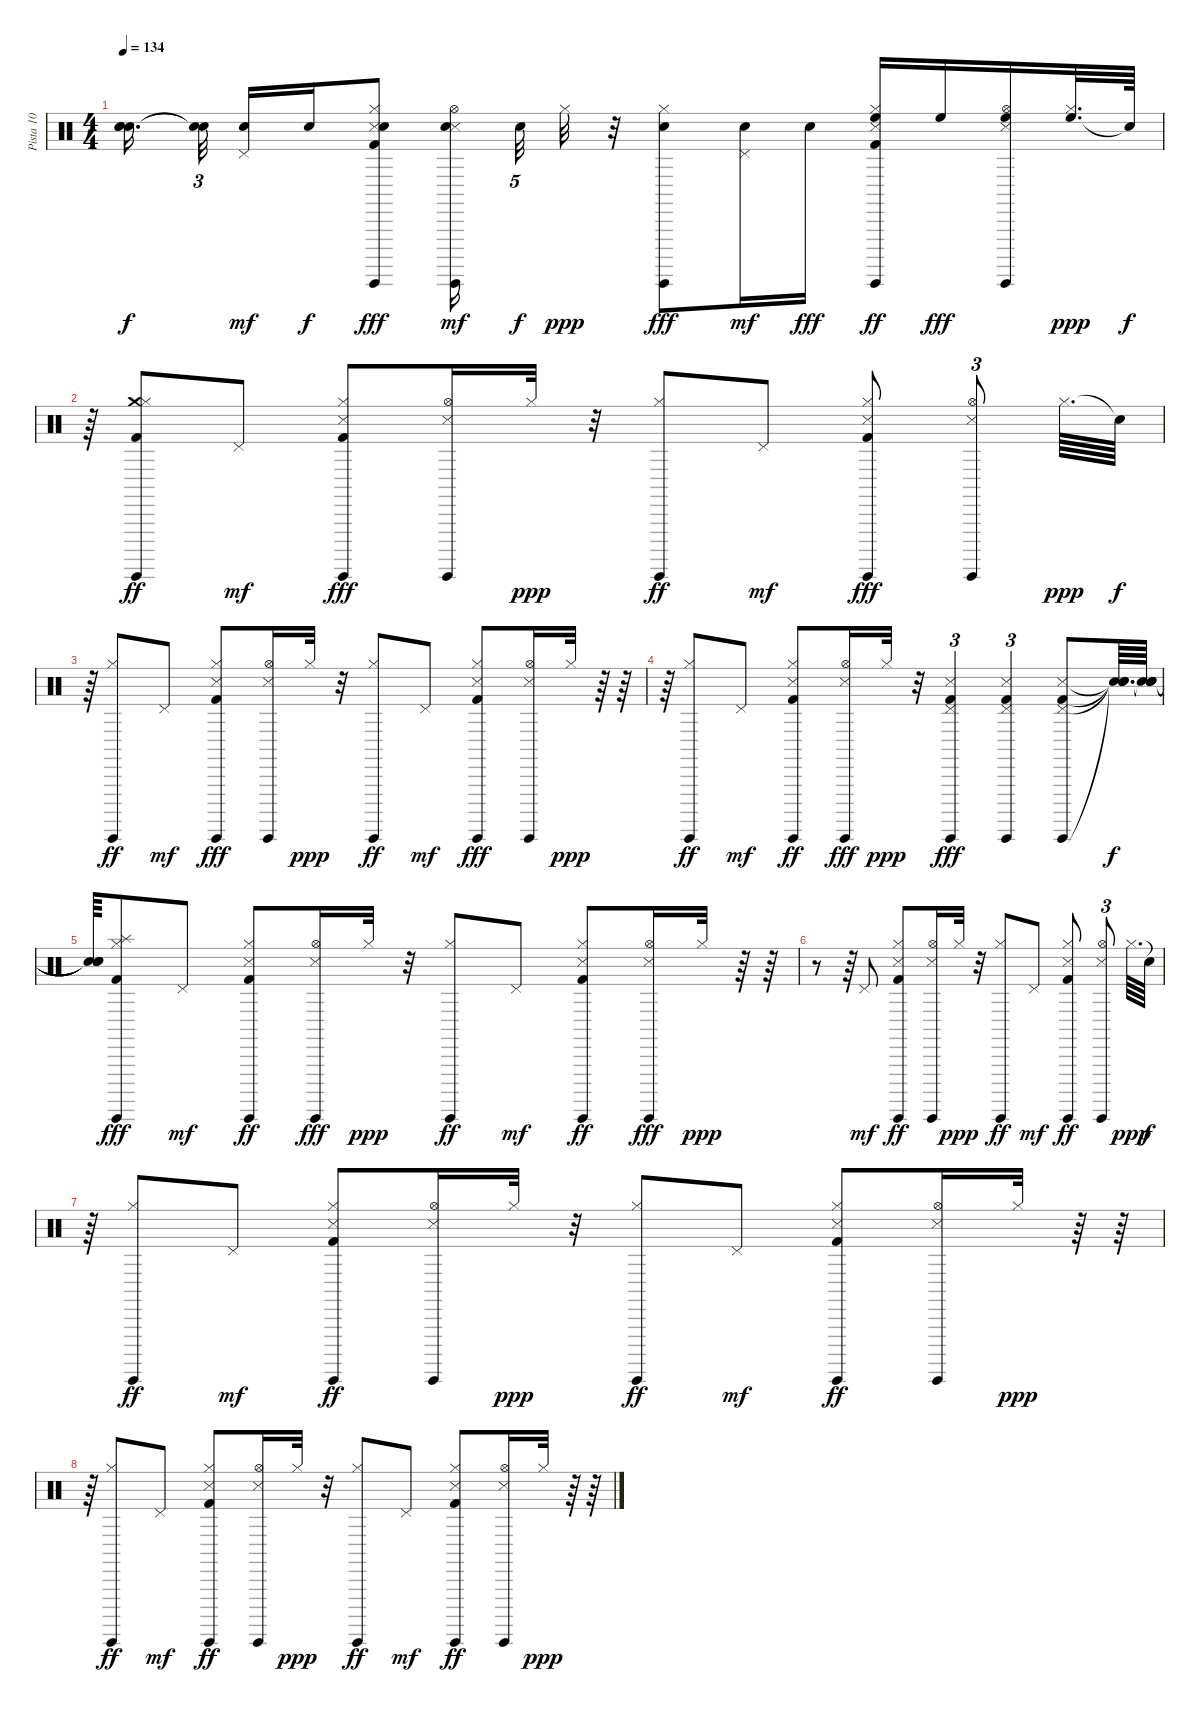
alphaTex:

\track ("Pista 10" "Pista 10") {instrument percussion}
\staff {score}
\articulation defaults
\ts (4 4)
\tempo 134
\clef neutral
\ks c
("Snare (hit)"{t} "Snare (hit)"{t} "Snare (hit)"{t}).16{d dy f beam splitsecondary} ("Snare (hit)"{t} "Snare (hit)"{t}).32{tu (3 2) beam splitsecondary} ("Pedal Hi-Hat (hit)" "Electric Snare (hit)").16{dy mf} "Electric Snare (hit)".16{dy f} ("Guiro (hit)" "Hi-Hat (closed)" "Kick (hit) 2" "Snare (side stick) 3" "Electric Snare (hit)").8{dy fff} ("Guiro (hit)" "Hi-Hat (open)" "Snare (side stick) 3" "Electric Snare (hit)").16{dy mf beam splitsecondary} "Electric Snare (hit)".32{tu (5 4) dy f} "Hi-Hat (closed)".32{dy ppp} r.32 ("Guiro (hit)" "Hi-Hat (closed)" "Electric Snare (hit)").8{dy fff} ("Pedal Hi-Hat (hit)" "Electric Snare (hit)").16{dy mf} "Electric Snare (hit)".16{dy fff} ("Guiro (hit)" "Hi-Hat (closed)" "Kick (hit) 2" "Snare (side stick) 3" "High Floor Tom (hit)").16{dy ff} "High Floor Tom (hit)".16{dy fff} ("Guiro (hit)" "Hi-Hat (open)" "Snare (side stick) 3" "High Floor Tom (hit)").16 ("High Floor Tom (hit)" "Hi-Hat (closed)").32{d dy ppp} "Snare (hit)"{t}.64{dy f} |
r.64 ("Kick (hit) 2" "Crash medium (hit)" "Guiro (hit)" "Hi-Hat (closed)").8{dy ff} "Pedal Hi-Hat (hit)".8{dy mf} ("Guiro (hit)" "Hi-Hat (closed)" "Kick (hit) 2" "Snare (side stick) 3").8{dy fff} ("Guiro (hit)" "Hi-Hat (open)" "Snare (side stick) 3").16 "Hi-Hat (closed)".32{dy ppp} r.32 ("Guiro (hit)" "Hi-Hat (closed)").8{dy ff} "Pedal Hi-Hat (hit)".8{dy mf} ("Guiro (hit)" "Hi-Hat (closed)" "Kick (hit) 2" "Snare (side stick) 3").8{dy fff} ("Guiro (hit)" "Hi-Hat (open)" "Snare (side stick) 3").8{tu (3 2)} "Hi-Hat (closed)".64{d dy ppp} "Snare (hit)"{t}.64{dy f} |
r.64 ("Guiro (hit)" "Hi-Hat (closed)").8{dy ff} "Pedal Hi-Hat (hit)".8{dy mf} ("Guiro (hit)" "Hi-Hat (closed)" "Kick (hit) 2" "Snare (side stick) 3").8{dy fff} ("Guiro (hit)" "Hi-Hat (open)" "Snare (side stick) 3").16 "Hi-Hat (closed)".32{dy ppp} r.32 ("Guiro (hit)" "Hi-Hat (closed)").8{dy ff} "Pedal Hi-Hat (hit)".8{dy mf} ("Guiro (hit)" "Hi-Hat (closed)" "Kick (hit) 2" "Snare (side stick) 3").8{dy fff} ("Guiro (hit)" "Hi-Hat (open)" "Snare (side stick) 3").16 "Hi-Hat (closed)".32{dy ppp} r.64 r.64 |
r.64 ("Hi-Hat (closed)" "Guiro (hit)").8{dy ff} "Pedal Hi-Hat (hit)".8{dy mf} ("Hi-Hat (closed)" "Guiro (hit)" "Snare (side stick) 3" "Kick (hit) 2").8{dy ff} ("Hi-Hat (open)" "Guiro (hit)" "Snare (side stick) 3").16{dy fff} "Hi-Hat (closed)".32{dy ppp} r.32 ("Snare (side stick) 3" "Kick (hit) 2" "Pedal Hi-Hat (hit)" "Guiro (hit)").4{tu (3 2) dy fff} ("Snare (side stick) 3" "Kick (hit) 2" "Pedal Hi-Hat (hit)" "Guiro (hit)").4{tu (3 2)} ("Snare (side stick) 3" "Kick (hit) 2" "Pedal Hi-Hat (hit)" "Guiro (hit)").8 ("Snare (hit)"{t} "Snare (hit)"{t} "Snare (hit)"{t} "Snare (hit)"{t}).64{d dy f} ("Snare (hit)"{t} "Snare (hit)"{t} "Snare (hit)"{t} "Snare (hit)"{t}).64 |
("Snare (hit)"{t} "Snare (hit)"{t} "Snare (hit)"{t} "Snare (hit)"{t}).64 ("Hi-Hat (closed)" "Guiro (hit)" "Splash (hit)" "Kick (hit) 2").8{dy fff} "Pedal Hi-Hat (hit)".8{dy mf} ("Hi-Hat (closed)" "Guiro (hit)" "Snare (side stick) 3" "Kick (hit) 2").8{dy ff} ("Hi-Hat (open)" "Guiro (hit)" "Snare (side stick) 3").16{dy fff} "Hi-Hat (closed)".32{dy ppp} r.32 ("Hi-Hat (closed)" "Guiro (hit)").8{dy ff} "Pedal Hi-Hat (hit)".8{dy mf} ("Hi-Hat (closed)" "Guiro (hit)" "Snare (side stick) 3" "Kick (hit) 2").8{dy ff} ("Hi-Hat (open)" "Guiro (hit)" "Snare (side stick) 3").16{dy fff} "Hi-Hat (closed)".32{dy ppp} r.64 r.64 |
r.8 r.64 "Pedal Hi-Hat (hit)".8{dy mf} ("Hi-Hat (closed)" "Kick (hit) 2" "Snare (side stick) 3" "Guiro (hit)").8{dy ff} ("Hi-Hat (open)" "Snare (side stick) 3" "Guiro (hit)").16 "Hi-Hat (closed)".32{dy ppp} r.32 ("Hi-Hat (closed)" "Guiro (hit)").8{dy ff} "Pedal Hi-Hat (hit)".8{dy mf} ("Hi-Hat (closed)" "Kick (hit) 2" "Snare (side stick) 3" "Guiro (hit)").8{dy ff} ("Hi-Hat (open)" "Snare (side stick) 3" "Guiro (hit)").8{tu (3 2)} "Hi-Hat (closed)".64{d dy ppp} "Snare (hit)"{t}.64{dy f} |
r.64 ("Hi-Hat (closed)" "Guiro (hit)").8{dy ff} "Pedal Hi-Hat (hit)".8{dy mf} ("Hi-Hat (closed)" "Kick (hit) 2" "Snare (side stick) 3" "Guiro (hit)").8{dy ff} ("Hi-Hat (open)" "Snare (side stick) 3" "Guiro (hit)").16 "Hi-Hat (closed)".32{dy ppp} r.32 ("Hi-Hat (closed)" "Guiro (hit)").8{dy ff} "Pedal Hi-Hat (hit)".8{dy mf} ("Hi-Hat (closed)" "Kick (hit) 2" "Snare (side stick) 3" "Guiro (hit)").8{dy ff} ("Hi-Hat (open)" "Snare (side stick) 3" "Guiro (hit)").16 "Hi-Hat (closed)".32{dy ppp} r.64 r.64 |
r.64 ("Hi-Hat (closed)" "Guiro (hit)").8{dy ff} "Pedal Hi-Hat (hit)".8{dy mf} ("Hi-Hat (closed)" "Kick (hit) 2" "Snare (side stick) 3" "Guiro (hit)").8{dy ff} ("Hi-Hat (open)" "Snare (side stick) 3" "Guiro (hit)").16 "Hi-Hat (closed)".32{dy ppp} r.32 ("Hi-Hat (closed)" "Guiro (hit)").8{dy ff} "Pedal Hi-Hat (hit)".8{dy mf} ("Hi-Hat (closed)" "Kick (hit) 2" "Snare (side stick) 3" "Guiro (hit)").8{dy ff} ("Hi-Hat (open)" "Snare (side stick) 3" "Guiro (hit)").16 "Hi-Hat (closed)".32{dy ppp} r.64 r.64
